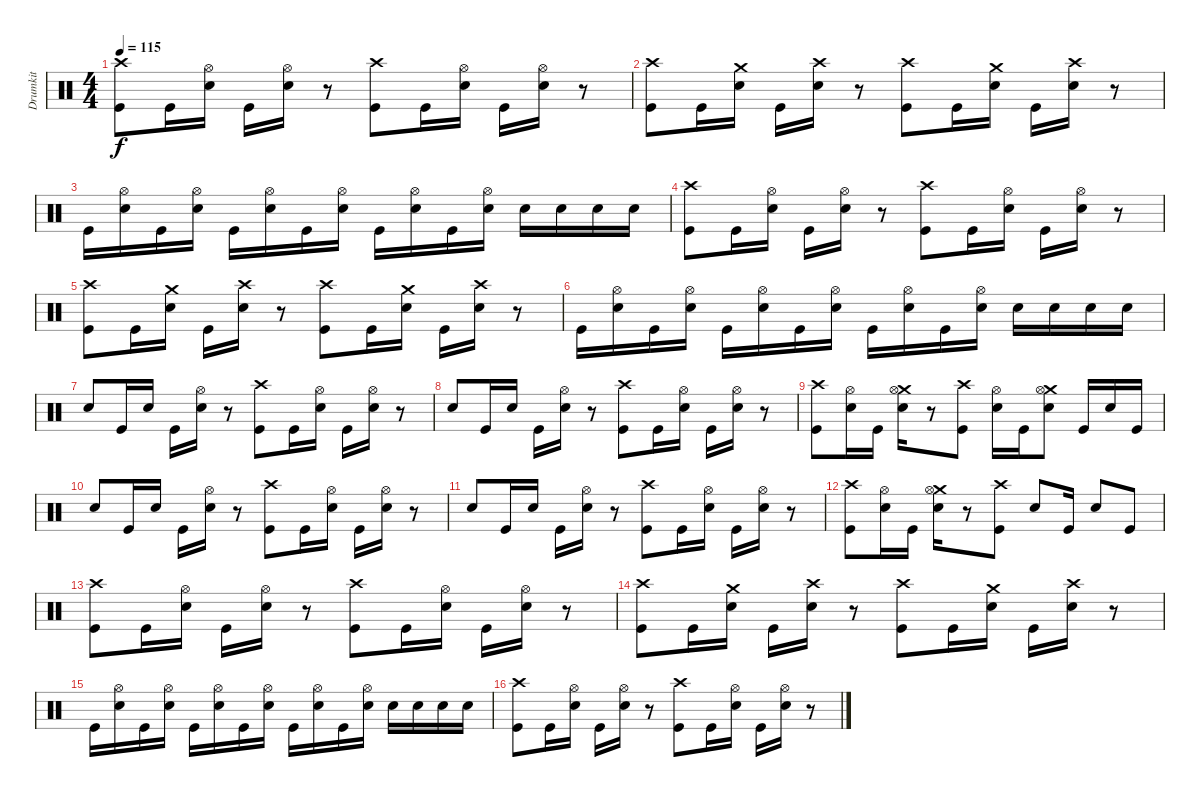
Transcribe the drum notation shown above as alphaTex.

\track ("Drumkit" "Drumkit") {instrument percussion}
\staff {score}
\articulation defaults
\ts (4 4)
\tempo 115
\clef neutral
\ks c
("Kick (hit)" "Crash high (hit)").8{dy f} "Kick (hit)".16 ("Hi-Hat (open)" "Snare (hit) 2").16 "Kick (hit)".16 ("Hi-Hat (open)" "Snare (hit) 2").16 r.8 ("Kick (hit)" "Crash high (hit)").8 "Kick (hit)".16 ("Hi-Hat (open)" "Snare (hit) 2").16 "Kick (hit)".16 ("Hi-Hat (open)" "Snare (hit) 2").16 r.8 |
("Kick (hit)" "Crash high (hit)").8 "Kick (hit)".16 ("Crash medium (hit)" "Snare (hit) 2").16 "Kick (hit)".16 ("Crash high (hit)" "Snare (hit) 2").16 r.8 ("Kick (hit)" "Crash high (hit)").8 "Kick (hit)".16 ("Crash medium (hit)" "Snare (hit) 2").16 "Kick (hit)".16 ("Crash high (hit)" "Snare (hit) 2").16 r.8 |
"Kick (hit)".16 ("Hi-Hat (open)" "Snare (hit) 2").16 "Kick (hit)".16 ("Hi-Hat (open)" "Snare (hit) 2").16 "Kick (hit)".16 ("Hi-Hat (open)" "Snare (hit) 2").16 "Kick (hit)".16 ("Hi-Hat (open)" "Snare (hit) 2").16 "Kick (hit)".16 ("Hi-Hat (open)" "Snare (hit) 2").16 "Kick (hit)".16 ("Hi-Hat (open)" "Snare (hit) 2").16 "Snare (hit) 2".16 "Snare (hit) 2".16 "Snare (hit) 2".16 "Snare (hit) 2".16 |
("Kick (hit)" "Crash high (hit)").8 "Kick (hit)".16 ("Hi-Hat (open)" "Snare (hit) 2").16 "Kick (hit)".16 ("Hi-Hat (open)" "Snare (hit) 2").16 r.8 ("Kick (hit)" "Crash high (hit)").8 "Kick (hit)".16 ("Hi-Hat (open)" "Snare (hit) 2").16 "Kick (hit)".16 ("Hi-Hat (open)" "Snare (hit) 2").16 r.8 |
("Kick (hit)" "Crash high (hit)").8 "Kick (hit)".16 ("Crash medium (hit)" "Snare (hit) 2").16 "Kick (hit)".16 ("Crash high (hit)" "Snare (hit) 2").16 r.8 ("Kick (hit)" "Crash high (hit)").8 "Kick (hit)".16 ("Crash medium (hit)" "Snare (hit) 2").16 "Kick (hit)".16 ("Crash high (hit)" "Snare (hit) 2").16 r.8 |
"Kick (hit)".16 ("Hi-Hat (open)" "Snare (hit) 2").16 "Kick (hit)".16 ("Hi-Hat (open)" "Snare (hit) 2").16 "Kick (hit)".16 ("Hi-Hat (open)" "Snare (hit) 2").16 "Kick (hit)".16 ("Hi-Hat (open)" "Snare (hit) 2").16 "Kick (hit)".16 ("Hi-Hat (open)" "Snare (hit) 2").16 "Kick (hit)".16 ("Hi-Hat (open)" "Snare (hit) 2").16 "Snare (hit) 2".16 "Snare (hit) 2".16 "Snare (hit) 2".16 "Snare (hit) 2".16 |
"Snare (hit) 2".8 "Kick (hit)".16 "Snare (hit) 2".16 "Kick (hit)".16 ("Hi-Hat (open)" "Snare (hit) 2").16 r.8 ("Kick (hit)" "Crash high (hit)").8 "Kick (hit)".16 ("Hi-Hat (open)" "Snare (hit) 2").16 "Kick (hit)".16 ("Hi-Hat (open)" "Snare (hit) 2").16 r.8 |
"Snare (hit) 2".8 "Kick (hit)".16 "Snare (hit) 2".16 "Kick (hit)".16 ("Hi-Hat (open)" "Snare (hit) 2").16 r.8 ("Kick (hit)" "Crash high (hit)").8 "Kick (hit)".16 ("Hi-Hat (open)" "Snare (hit) 2").16 "Kick (hit)".16 ("Hi-Hat (open)" "Snare (hit) 2").16 r.8 |
("Crash high (hit)" "Kick (hit)").8 ("Hi-Hat (open)" "Snare (hit) 2").16 "Kick (hit)".16 ("Crash medium (hit)" "Hi-Hat (open)" "Snare (hit) 2").16 r.8 ("Crash high (hit)" "Kick (hit)").8 ("Hi-Hat (open)" "Snare (hit) 2").16 "Kick (hit)".16 ("Crash medium (hit)" "Hi-Hat (open)" "Snare (hit) 2").8 "Kick (hit)".16 "Snare (hit) 2".16 "Kick (hit)".16 |
"Snare (hit) 2".8 "Kick (hit)".16 "Snare (hit) 2".16 "Kick (hit)".16 ("Hi-Hat (open)" "Snare (hit) 2").16 r.8 ("Kick (hit)" "Crash high (hit)").8 "Kick (hit)".16 ("Hi-Hat (open)" "Snare (hit) 2").16 "Kick (hit)".16 ("Hi-Hat (open)" "Snare (hit) 2").16 r.8 |
"Snare (hit) 2".8 "Kick (hit)".16 "Snare (hit) 2".16 "Kick (hit)".16 ("Hi-Hat (open)" "Snare (hit) 2").16 r.8 ("Kick (hit)" "Crash high (hit)").8 "Kick (hit)".16 ("Hi-Hat (open)" "Snare (hit) 2").16 "Kick (hit)".16 ("Hi-Hat (open)" "Snare (hit) 2").16 r.8 |
("Crash high (hit)" "Kick (hit)").8 ("Hi-Hat (open)" "Snare (hit) 2").16 "Kick (hit)".16 ("Crash medium (hit)" "Hi-Hat (open)" "Snare (hit) 2").16 r.8 ("Crash high (hit)" "Kick (hit)").8 "Snare (hit) 2".8 "Kick (hit)".16 "Snare (hit) 2".8 "Kick (hit)".8 |
("Kick (hit)" "Crash high (hit)").8 "Kick (hit)".16 ("Hi-Hat (open)" "Snare (hit) 2").16 "Kick (hit)".16 ("Hi-Hat (open)" "Snare (hit) 2").16 r.8 ("Kick (hit)" "Crash high (hit)").8 "Kick (hit)".16 ("Hi-Hat (open)" "Snare (hit) 2").16 "Kick (hit)".16 ("Hi-Hat (open)" "Snare (hit) 2").16 r.8 |
("Kick (hit)" "Crash high (hit)").8 "Kick (hit)".16 ("Crash medium (hit)" "Snare (hit) 2").16 "Kick (hit)".16 ("Crash high (hit)" "Snare (hit) 2").16 r.8 ("Kick (hit)" "Crash high (hit)").8 "Kick (hit)".16 ("Crash medium (hit)" "Snare (hit) 2").16 "Kick (hit)".16 ("Crash high (hit)" "Snare (hit) 2").16 r.8 |
"Kick (hit)".16 ("Hi-Hat (open)" "Snare (hit) 2").16 "Kick (hit)".16 ("Hi-Hat (open)" "Snare (hit) 2").16 "Kick (hit)".16 ("Hi-Hat (open)" "Snare (hit) 2").16 "Kick (hit)".16 ("Hi-Hat (open)" "Snare (hit) 2").16 "Kick (hit)".16 ("Hi-Hat (open)" "Snare (hit) 2").16 "Kick (hit)".16 ("Hi-Hat (open)" "Snare (hit) 2").16 "Snare (hit) 2".16 "Snare (hit) 2".16 "Snare (hit) 2".16 "Snare (hit) 2".16 |
("Kick (hit)" "Crash high (hit)").8 "Kick (hit)".16 ("Hi-Hat (open)" "Snare (hit) 2").16 "Kick (hit)".16 ("Hi-Hat (open)" "Snare (hit) 2").16 r.8 ("Kick (hit)" "Crash high (hit)").8 "Kick (hit)".16 ("Hi-Hat (open)" "Snare (hit) 2").16 "Kick (hit)".16 ("Hi-Hat (open)" "Snare (hit) 2").16 r.8
